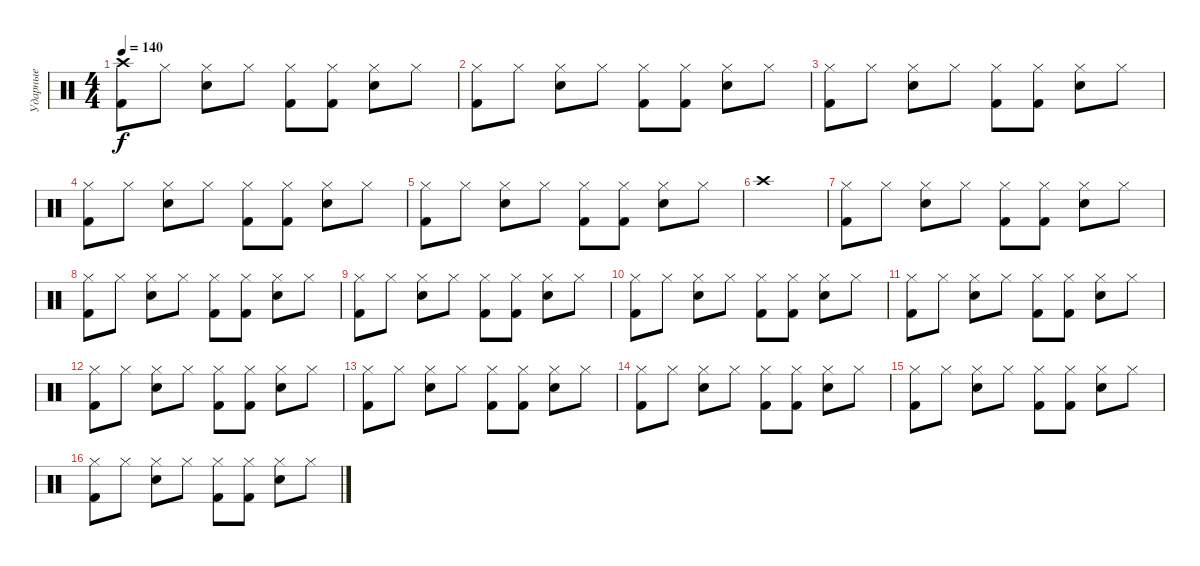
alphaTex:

\track ("Ударные" "Ударные") {instrument percussion}
\staff {score}
\articulation defaults
\ts (4 4)
\tempo 140
\clef neutral
\ks c
("Crash high (hit)" "Kick (hit) 2").8{dy f} "Hi-Hat (closed)".8 ("Hi-Hat (closed)" "Snare (hit) 2").8 "Hi-Hat (closed)".8 ("Kick (hit) 2" "Hi-Hat (closed)").8 ("Kick (hit) 2" "Hi-Hat (closed)").8 ("Snare (hit) 2" "Hi-Hat (closed)").8 "Hi-Hat (closed)".8 |
("Hi-Hat (closed)" "Kick (hit) 2").8 "Hi-Hat (closed)".8 ("Hi-Hat (closed)" "Snare (hit) 2").8 "Hi-Hat (closed)".8 ("Kick (hit) 2" "Hi-Hat (closed)").8 ("Kick (hit) 2" "Hi-Hat (closed)").8 ("Snare (hit) 2" "Hi-Hat (closed)").8 "Hi-Hat (closed)".8 |
("Hi-Hat (closed)" "Kick (hit) 2").8 "Hi-Hat (closed)".8 ("Hi-Hat (closed)" "Snare (hit) 2").8 "Hi-Hat (closed)".8 ("Kick (hit) 2" "Hi-Hat (closed)").8 ("Kick (hit) 2" "Hi-Hat (closed)").8 ("Snare (hit) 2" "Hi-Hat (closed)").8 "Hi-Hat (closed)".8 |
("Hi-Hat (closed)" "Kick (hit) 2").8 "Hi-Hat (closed)".8 ("Hi-Hat (closed)" "Snare (hit) 2").8 "Hi-Hat (closed)".8 ("Kick (hit) 2" "Hi-Hat (closed)").8 ("Kick (hit) 2" "Hi-Hat (closed)").8 ("Snare (hit) 2" "Hi-Hat (closed)").8 "Hi-Hat (closed)".8 |
("Hi-Hat (closed)" "Kick (hit) 2").8 "Hi-Hat (closed)".8 ("Hi-Hat (closed)" "Snare (hit) 2").8 "Hi-Hat (closed)".8 ("Kick (hit) 2" "Hi-Hat (closed)").8 ("Kick (hit) 2" "Hi-Hat (closed)").8 ("Snare (hit) 2" "Hi-Hat (closed)").8 "Hi-Hat (closed)".8 |
"Crash high (hit)".1 |
("Hi-Hat (closed)" "Kick (hit) 2").8 "Hi-Hat (closed)".8 ("Hi-Hat (closed)" "Snare (hit) 2").8 "Hi-Hat (closed)".8 ("Kick (hit) 2" "Hi-Hat (closed)").8 ("Kick (hit) 2" "Hi-Hat (closed)").8 ("Snare (hit) 2" "Hi-Hat (closed)").8 "Hi-Hat (closed)".8 |
("Hi-Hat (closed)" "Kick (hit) 2").8 "Hi-Hat (closed)".8 ("Hi-Hat (closed)" "Snare (hit) 2").8 "Hi-Hat (closed)".8 ("Kick (hit) 2" "Hi-Hat (closed)").8 ("Kick (hit) 2" "Hi-Hat (closed)").8 ("Snare (hit) 2" "Hi-Hat (closed)").8 "Hi-Hat (closed)".8 |
("Hi-Hat (closed)" "Kick (hit) 2").8 "Hi-Hat (closed)".8 ("Hi-Hat (closed)" "Snare (hit) 2").8 "Hi-Hat (closed)".8 ("Kick (hit) 2" "Hi-Hat (closed)").8 ("Kick (hit) 2" "Hi-Hat (closed)").8 ("Snare (hit) 2" "Hi-Hat (closed)").8 "Hi-Hat (closed)".8 |
("Hi-Hat (closed)" "Kick (hit) 2").8 "Hi-Hat (closed)".8 ("Hi-Hat (closed)" "Snare (hit) 2").8 "Hi-Hat (closed)".8 ("Kick (hit) 2" "Hi-Hat (closed)").8 ("Kick (hit) 2" "Hi-Hat (closed)").8 ("Snare (hit) 2" "Hi-Hat (closed)").8 "Hi-Hat (closed)".8 |
("Hi-Hat (closed)" "Kick (hit) 2").8 "Hi-Hat (closed)".8 ("Hi-Hat (closed)" "Snare (hit) 2").8 "Hi-Hat (closed)".8 ("Kick (hit) 2" "Hi-Hat (closed)").8 ("Kick (hit) 2" "Hi-Hat (closed)").8 ("Snare (hit) 2" "Hi-Hat (closed)").8 "Hi-Hat (closed)".8 |
("Hi-Hat (closed)" "Kick (hit) 2").8 "Hi-Hat (closed)".8 ("Hi-Hat (closed)" "Snare (hit) 2").8 "Hi-Hat (closed)".8 ("Kick (hit) 2" "Hi-Hat (closed)").8 ("Kick (hit) 2" "Hi-Hat (closed)").8 ("Snare (hit) 2" "Hi-Hat (closed)").8 "Hi-Hat (closed)".8 |
("Hi-Hat (closed)" "Kick (hit) 2").8 "Hi-Hat (closed)".8 ("Hi-Hat (closed)" "Snare (hit) 2").8 "Hi-Hat (closed)".8 ("Kick (hit) 2" "Hi-Hat (closed)").8 ("Kick (hit) 2" "Hi-Hat (closed)").8 ("Snare (hit) 2" "Hi-Hat (closed)").8 "Hi-Hat (closed)".8 |
("Hi-Hat (closed)" "Kick (hit) 2").8 "Hi-Hat (closed)".8 ("Hi-Hat (closed)" "Snare (hit) 2").8 "Hi-Hat (closed)".8 ("Kick (hit) 2" "Hi-Hat (closed)").8 ("Kick (hit) 2" "Hi-Hat (closed)").8 ("Snare (hit) 2" "Hi-Hat (closed)").8 "Hi-Hat (closed)".8 |
("Hi-Hat (closed)" "Kick (hit) 2").8 "Hi-Hat (closed)".8 ("Hi-Hat (closed)" "Snare (hit) 2").8 "Hi-Hat (closed)".8 ("Kick (hit) 2" "Hi-Hat (closed)").8 ("Kick (hit) 2" "Hi-Hat (closed)").8 ("Snare (hit) 2" "Hi-Hat (closed)").8 "Hi-Hat (closed)".8 |
("Hi-Hat (closed)" "Kick (hit) 2").8 "Hi-Hat (closed)".8 ("Hi-Hat (closed)" "Snare (hit) 2").8 "Hi-Hat (closed)".8 ("Kick (hit) 2" "Hi-Hat (closed)").8 ("Kick (hit) 2" "Hi-Hat (closed)").8 ("Snare (hit) 2" "Hi-Hat (closed)").8 "Hi-Hat (closed)".8
